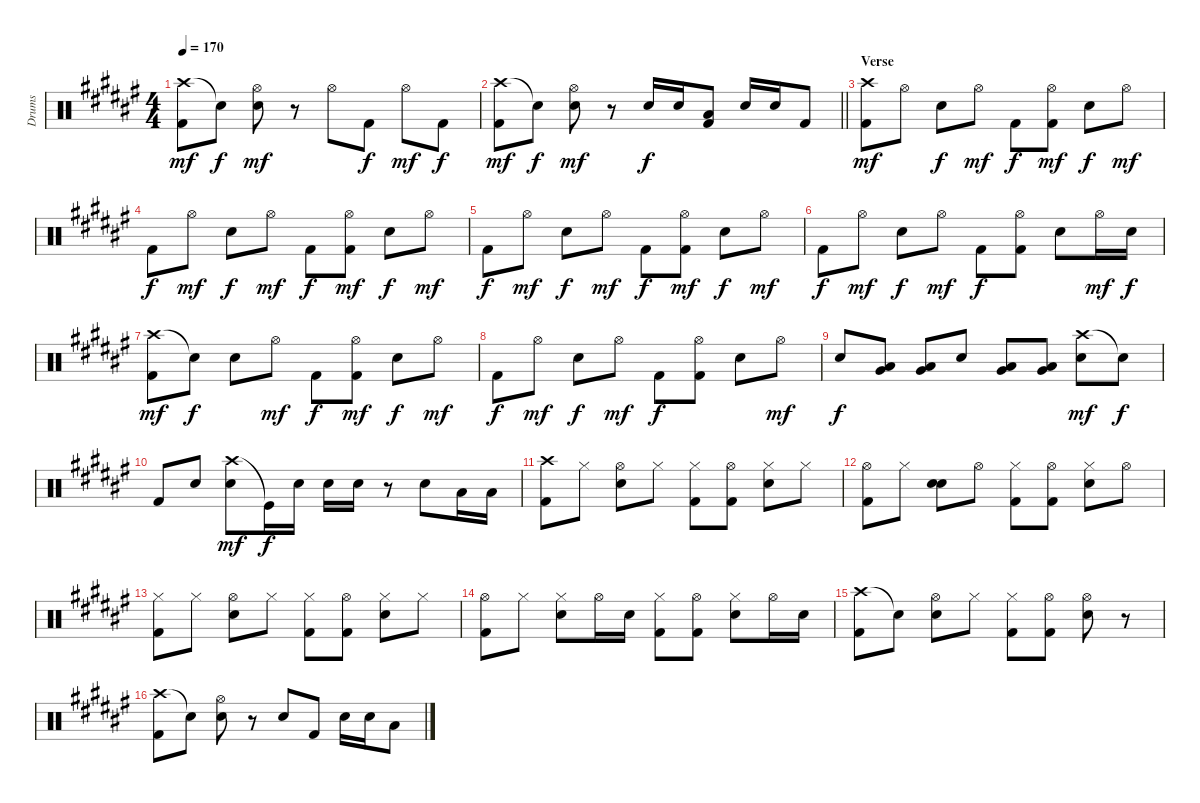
\track ("Drums" "Drums") {instrument percussion}
\staff {score}
\articulation defaults
\ts (4 4)
\tempo 170
\clef neutral
\ks f#
("Crash high (hit)" "Kick (hit) 2").8{dy mf} "Snare (hit)"{t}.8{dy f} ("Hi-Hat (open)" "Snare (hit) 2").8{dy mf} r.8 "Hi-Hat (open)".8 "Kick (hit) 2".8{dy f} "Hi-Hat (open)".8{dy mf} "Kick (hit) 2".8{dy f} |
\barLineRight lightlight
("Crash high (hit)" "Kick (hit) 2").8{dy mf} "Snare (hit)"{t}.8{dy f} ("Hi-Hat (open)" "Snare (hit) 2").8{dy mf} r.8 "Snare (hit) 2".16{dy f} "Snare (hit) 2".16 ("Low Tom (hit)" "Kick (hit) 2").8 "Snare (hit) 2".16 "Snare (hit) 2".16 "Kick (hit) 2".8 |
\section ("" "Verse")
("Crash high (hit)" "Kick (hit) 2").8{dy mf} "Hi-Hat (open)".8 "Snare (hit) 2".8{dy f} "Hi-Hat (open)".8{dy mf} "Kick (hit) 2".8{dy f} ("Hi-Hat (open)" "Kick (hit) 2").8{dy mf} "Snare (hit) 2".8{dy f} "Hi-Hat (open)".8{dy mf} |
"Kick (hit) 2".8{dy f} "Hi-Hat (open)".8{dy mf} "Snare (hit) 2".8{dy f} "Hi-Hat (open)".8{dy mf} "Kick (hit) 2".8{dy f} ("Hi-Hat (open)" "Kick (hit) 2").8{dy mf} "Snare (hit) 2".8{dy f} "Hi-Hat (open)".8{dy mf} |
"Kick (hit) 2".8{dy f} "Hi-Hat (open)".8{dy mf} "Snare (hit) 2".8{dy f} "Hi-Hat (open)".8{dy mf} "Kick (hit) 2".8{dy f} ("Hi-Hat (open)" "Kick (hit) 2").8{dy mf} "Snare (hit) 2".8{dy f} "Hi-Hat (open)".8{dy mf} |
"Kick (hit) 2".8{dy f} "Hi-Hat (open)".8{dy mf} "Snare (hit) 2".8{dy f} "Hi-Hat (open)".8{dy mf} "Kick (hit) 2".8{dy f} ("Hi-Hat (open)" "Kick (hit) 2").8 "Snare (hit) 2".8 "Hi-Hat (open)".16{dy mf} "Snare (hit) 2".16{dy f} |
("Crash high (hit)" "Kick (hit) 2").8{dy mf} "Snare (hit)"{t}.8{dy f} "Snare (hit) 2".8 "Hi-Hat (open)".8{dy mf} "Kick (hit) 2".8{dy f} ("Hi-Hat (open)" "Kick (hit) 2").8{dy mf} "Snare (hit) 2".8{dy f} "Hi-Hat (open)".8{dy mf} |
"Kick (hit) 2".8{dy f} "Hi-Hat (open)".8{dy mf} "Snare (hit) 2".8{dy f} "Hi-Hat (open)".8{dy mf} "Kick (hit) 2".8{dy f} ("Hi-Hat (open)" "Kick (hit) 2").8 "Snare (hit) 2".8 "Hi-Hat (open)".8{dy mf} |
"Snare (hit) 2".8{dy f} ("Low Tom (hit)" "Very Low Tom (hit)").8 ("Low Tom (hit)" "Very Low Tom (hit)").8 "Snare (hit) 2".8 ("Low Tom (hit)" "Very Low Tom (hit)").8 ("Low Tom (hit)" "Very Low Tom (hit)").8 ("Crash high (hit)" "Snare (hit) 2").8{dy mf} "Snare (hit)"{t}.8{dy f} |
"Kick (hit) 2".8 "Snare (hit) 2".8 ("Crash high (hit)" "Snare (hit) 2").8{dy mf} "Kick (hit)"{t}.16{dy f} "Snare (hit) 2".16 "Snare (hit) 2".16 "Snare (hit) 2".16 r.8 "Snare (hit) 2".8 "Low Tom (hit)".16 "Low Tom (hit)".16 |
("Crash high (hit)" "Kick (hit) 2").8 "Hi-Hat (closed)".8 ("Hi-Hat (open)" "Snare (hit) 2").8 "Hi-Hat (closed)".8 ("Hi-Hat (closed)" "Kick (hit) 2").8 ("Hi-Hat (open)" "Kick (hit) 2").8 ("Hi-Hat (closed)" "Snare (hit) 2").8 "Hi-Hat (closed)".8 |
("Hi-Hat (open)" "Kick (hit) 2").8 "Hi-Hat (closed)".8 ("Snare (hit) 2" "Snare (hit) 2").8 "Hi-Hat (open)".8 ("Hi-Hat (closed)" "Kick (hit) 2").8 ("Hi-Hat (open)" "Kick (hit) 2").8 ("Hi-Hat (closed)" "Snare (hit) 2").8 "Hi-Hat (open)".8 |
("Hi-Hat (closed)" "Kick (hit) 2").8 "Hi-Hat (closed)".8 ("Hi-Hat (open)" "Snare (hit) 2").8 "Hi-Hat (closed)".8 ("Hi-Hat (closed)" "Kick (hit) 2").8 ("Hi-Hat (open)" "Kick (hit) 2").8 ("Hi-Hat (closed)" "Snare (hit) 2").8 "Hi-Hat (closed)".8 |
("Hi-Hat (open)" "Kick (hit) 2").8 "Hi-Hat (closed)".8 ("Hi-Hat (closed)" "Snare (hit) 2").8 "Hi-Hat (open)".16 "Snare (hit) 2".16 ("Hi-Hat (closed)" "Kick (hit) 2").8 ("Hi-Hat (open)" "Kick (hit) 2").8 ("Hi-Hat (closed)" "Snare (hit) 2").8 "Hi-Hat (open)".16 "Snare (hit) 2".16 |
("Crash high (hit)" "Kick (hit) 2").8 "Snare (hit)"{t}.8 ("Hi-Hat (open)" "Snare (hit) 2").8 "Hi-Hat (closed)".8 ("Hi-Hat (closed)" "Kick (hit) 2").8 ("Hi-Hat (open)" "Kick (hit) 2").8 ("Hi-Hat (open)" "Snare (hit) 2").8 r.8 |
("Crash high (hit)" "Kick (hit) 2").8 "Snare (hit)"{t}.8 ("Hi-Hat (open)" "Snare (hit) 2").8 r.8 "Snare (hit) 2".8 "Kick (hit) 2".8 "Snare (hit) 2".16 "Snare (hit) 2".16 "Low Tom (hit)".8
